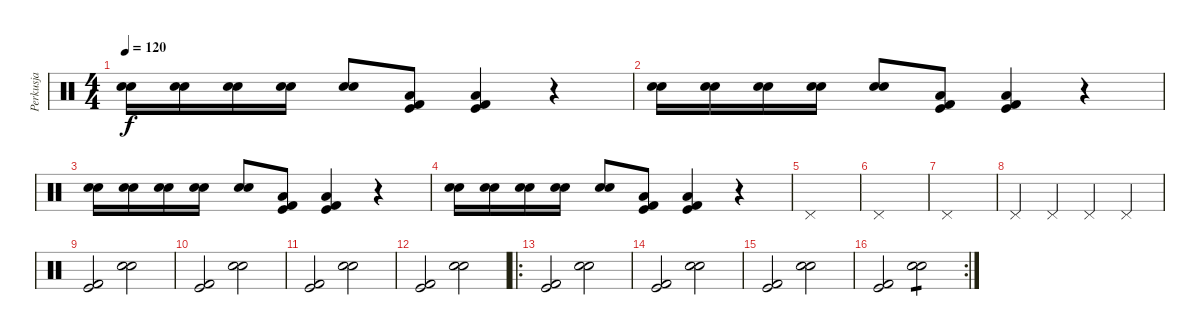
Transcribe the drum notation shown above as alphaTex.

\track ("Perkusja" "Perkusja") {instrument percussion}
\staff {score}
\articulation defaults
\ts (4 4)
\tempo 120
\clef neutral
\ks c
("Snare (hit) 2" "Electric Snare (hit)").16{dy f} ("Snare (hit) 2" "Electric Snare (hit)").16 ("Snare (hit) 2" "Electric Snare (hit)").16 ("Snare (hit) 2" "Electric Snare (hit)").16 ("Snare (hit) 2" "Electric Snare (hit)").8 ("Low Floor Tom (hit)" "Kick (hit) 2" "Kick (hit)").8 ("Low Floor Tom (hit)" "Kick (hit) 2" "Kick (hit)").4 r.4 |
("Snare (hit) 2" "Electric Snare (hit)").16 ("Snare (hit) 2" "Electric Snare (hit)").16 ("Snare (hit) 2" "Electric Snare (hit)").16 ("Snare (hit) 2" "Electric Snare (hit)").16 ("Snare (hit) 2" "Electric Snare (hit)").8 ("Low Floor Tom (hit)" "Kick (hit) 2" "Kick (hit)").8 ("Low Floor Tom (hit)" "Kick (hit) 2" "Kick (hit)").4 r.4 |
("Snare (hit) 2" "Electric Snare (hit)").16 ("Snare (hit) 2" "Electric Snare (hit)").16 ("Snare (hit) 2" "Electric Snare (hit)").16 ("Snare (hit) 2" "Electric Snare (hit)").16 ("Snare (hit) 2" "Electric Snare (hit)").8 ("Low Floor Tom (hit)" "Kick (hit) 2" "Kick (hit)").8 ("Low Floor Tom (hit)" "Kick (hit) 2" "Kick (hit)").4 r.4 |
("Snare (hit) 2" "Electric Snare (hit)").16 ("Snare (hit) 2" "Electric Snare (hit)").16 ("Snare (hit) 2" "Electric Snare (hit)").16 ("Snare (hit) 2" "Electric Snare (hit)").16 ("Snare (hit) 2" "Electric Snare (hit)").8 ("Low Floor Tom (hit)" "Kick (hit) 2" "Kick (hit)").8 ("Low Floor Tom (hit)" "Kick (hit) 2" "Kick (hit)").4 r.4 |
"Pedal Hi-Hat (hit)".1 |
"Pedal Hi-Hat (hit)".1 |
"Pedal Hi-Hat (hit)".1 |
"Pedal Hi-Hat (hit)".4 "Pedal Hi-Hat (hit)".4 "Pedal Hi-Hat (hit)".4 "Pedal Hi-Hat (hit)".4 |
("Kick (hit) 2" "Kick (hit)").2 ("Snare (hit) 2" "Electric Snare (hit)").2 |
("Kick (hit) 2" "Kick (hit)").2 ("Snare (hit) 2" "Electric Snare (hit)").2 |
("Kick (hit) 2" "Kick (hit)").2 ("Snare (hit) 2" "Electric Snare (hit)").2 |
("Kick (hit) 2" "Kick (hit)").2 ("Snare (hit) 2" "Electric Snare (hit)").2 |
\ro
("Kick (hit) 2" "Kick (hit)").2 ("Snare (hit) 2" "Electric Snare (hit)").2 |
("Kick (hit) 2" "Kick (hit)").2 ("Snare (hit) 2" "Electric Snare (hit)").2 |
("Kick (hit) 2" "Kick (hit)").2 ("Snare (hit) 2" "Electric Snare (hit)").2 |
\rc 2
("Kick (hit) 2" "Kick (hit)").2 ("Snare (hit) 2" "Electric Snare (hit)").2{tp 1}
